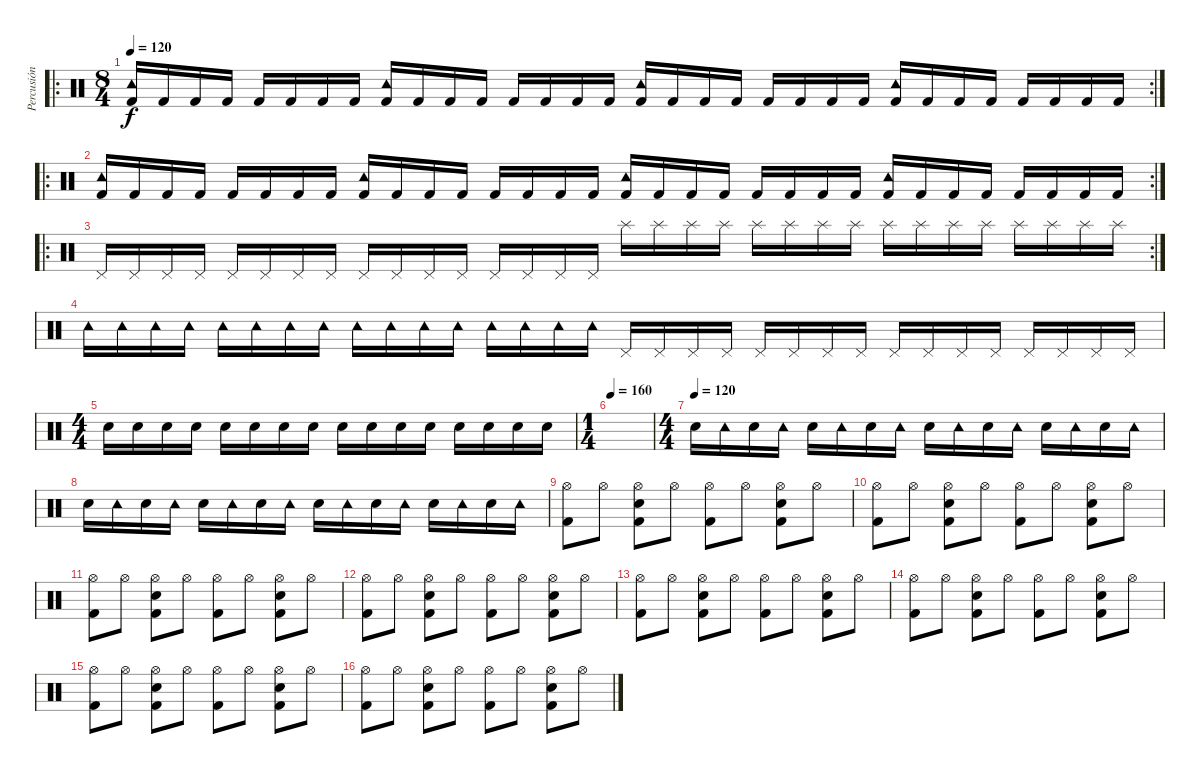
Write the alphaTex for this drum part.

\track ("Percusión" "Percusión") {instrument percussion}
\staff {score}
\articulation defaults
\ro
\rc 2
\ts (8 4)
\tempo 120
\clef neutral
\ks c
("Kick (hit) 2" "Tambourine (hit)").16{dy f} "Kick (hit) 2".16 "Kick (hit) 2".16 "Kick (hit) 2".16 "Kick (hit) 2".16 "Kick (hit) 2".16 "Kick (hit) 2".16 "Kick (hit) 2".16 ("Kick (hit) 2" "Tambourine (hit)").16 "Kick (hit) 2".16 "Kick (hit) 2".16 "Kick (hit) 2".16 "Kick (hit) 2".16 "Kick (hit) 2".16 "Kick (hit) 2".16 "Kick (hit) 2".16 ("Kick (hit) 2" "Tambourine (hit)").16 "Kick (hit) 2".16 "Kick (hit) 2".16 "Kick (hit) 2".16 "Kick (hit) 2".16 "Kick (hit) 2".16 "Kick (hit) 2".16 "Kick (hit) 2".16 ("Kick (hit) 2" "Tambourine (hit)").16 "Kick (hit) 2".16 "Kick (hit) 2".16 "Kick (hit) 2".16 "Kick (hit) 2".16 "Kick (hit) 2".16 "Kick (hit) 2".16 "Kick (hit) 2".16 |
\ro
\rc 2
("Kick (hit) 2" "Tambourine (hit)").16 "Kick (hit) 2".16 "Kick (hit) 2".16 "Kick (hit) 2".16 "Kick (hit) 2".16 "Kick (hit) 2".16 "Kick (hit) 2".16 "Kick (hit) 2".16 ("Kick (hit) 2" "Tambourine (hit)").16 "Kick (hit) 2".16 "Kick (hit) 2".16 "Kick (hit) 2".16 "Kick (hit) 2".16 "Kick (hit) 2".16 "Kick (hit) 2".16 "Kick (hit) 2".16 ("Kick (hit) 2" "Tambourine (hit)").16 "Kick (hit) 2".16 "Kick (hit) 2".16 "Kick (hit) 2".16 "Kick (hit) 2".16 "Kick (hit) 2".16 "Kick (hit) 2".16 "Kick (hit) 2".16 ("Kick (hit) 2" "Tambourine (hit)").16 "Kick (hit) 2".16 "Kick (hit) 2".16 "Kick (hit) 2".16 "Kick (hit) 2".16 "Kick (hit) 2".16 "Kick (hit) 2".16 "Kick (hit) 2".16 |
\ro
\rc 2 "Pedal Hi-Hat (hit)".16 "Pedal Hi-Hat (hit)".16 "Pedal Hi-Hat (hit)".16 "Pedal Hi-Hat (hit)".16 "Pedal Hi-Hat (hit)".16 "Pedal Hi-Hat (hit)".16 "Pedal Hi-Hat (hit)".16 "Pedal Hi-Hat (hit)".16 "Pedal Hi-Hat (hit)".16 "Pedal Hi-Hat (hit)".16 "Pedal Hi-Hat (hit)".16 "Pedal Hi-Hat (hit)".16 "Pedal Hi-Hat (hit)".16 "Pedal Hi-Hat (hit)".16 "Pedal Hi-Hat (hit)".16 "Pedal Hi-Hat (hit)".16 "Splash (hit)".16 "Splash (hit)".16 "Splash (hit)".16 "Splash (hit)".16 "Splash (hit)".16 "Splash (hit)".16 "Splash (hit)".16 "Splash (hit)".16 "Splash (hit)".16 "Splash (hit)".16 "Splash (hit)".16 "Splash (hit)".16 "Splash (hit)".16 "Splash (hit)".16 "Splash (hit)".16 "Splash (hit)".16
|
"Tambourine (hit)".16 "Tambourine (hit)".16 "Tambourine (hit)".16 "Tambourine (hit)".16 "Tambourine (hit)".16 "Tambourine (hit)".16 "Tambourine (hit)".16 "Tambourine (hit)".16 "Tambourine (hit)".16 "Tambourine (hit)".16 "Tambourine (hit)".16 "Tambourine (hit)".16 "Tambourine (hit)".16 "Tambourine (hit)".16 "Tambourine (hit)".16 "Tambourine (hit)".16 "Pedal Hi-Hat (hit)".16 "Pedal Hi-Hat (hit)".16 "Pedal Hi-Hat (hit)".16 "Pedal Hi-Hat (hit)".16 "Pedal Hi-Hat (hit)".16 "Pedal Hi-Hat (hit)".16 "Pedal Hi-Hat (hit)".16 "Pedal Hi-Hat (hit)".16 "Pedal Hi-Hat (hit)".16 "Pedal Hi-Hat (hit)".16 "Pedal Hi-Hat (hit)".16 "Pedal Hi-Hat (hit)".16 "Pedal Hi-Hat (hit)".16 "Pedal Hi-Hat (hit)".16 "Pedal Hi-Hat (hit)".16 "Pedal Hi-Hat (hit)".16 |
\ts (4 4)
"Snare (hit) 2".16 "Snare (hit) 2".16 "Snare (hit) 2".16 "Snare (hit) 2".16 "Snare (hit) 2".16 "Snare (hit) 2".16 "Snare (hit) 2".16 "Snare (hit) 2".16 "Snare (hit) 2".16 "Snare (hit) 2".16 "Snare (hit) 2".16 "Snare (hit) 2".16 "Snare (hit) 2".16 "Snare (hit) 2".16 "Snare (hit) 2".16 "Snare (hit) 2".16 |
\ts (1 4)
\tempo 160
|
\ts (4 4)
\tempo (120)
"Electric Snare (hit)".16 "Tambourine (hit)".16 "Electric Snare (hit)".16 "Tambourine (hit)".16 "Electric Snare (hit)".16 "Tambourine (hit)".16 "Electric Snare (hit)".16 "Tambourine (hit)".16 "Electric Snare (hit)".16 "Tambourine (hit)".16 "Electric Snare (hit)".16 "Tambourine (hit)".16 "Electric Snare (hit)".16 "Tambourine (hit)".16 "Electric Snare (hit)".16 "Tambourine (hit)".16 |
"Electric Snare (hit)".16 "Tambourine (hit)".16 "Electric Snare (hit)".16 "Tambourine (hit)".16 "Electric Snare (hit)".16 "Tambourine (hit)".16 "Electric Snare (hit)".16 "Tambourine (hit)".16 "Electric Snare (hit)".16 "Tambourine (hit)".16 "Electric Snare (hit)".16 "Tambourine (hit)".16 "Electric Snare (hit)".16 "Tambourine (hit)".16 "Electric Snare (hit)".16 "Tambourine (hit)".16 |
("Kick (hit) 2" "Hi-Hat (open)").8 "Hi-Hat (open)".8 ("Kick (hit) 2" "Electric Snare (hit)" "Hi-Hat (open)").8 "Hi-Hat (open)".8 ("Kick (hit) 2" "Hi-Hat (open)").8 "Hi-Hat (open)".8 ("Kick (hit) 2" "Electric Snare (hit)" "Hi-Hat (open)").8 "Hi-Hat (open)".8 |
("Kick (hit) 2" "Hi-Hat (open)").8 "Hi-Hat (open)".8 ("Kick (hit) 2" "Electric Snare (hit)" "Hi-Hat (open)").8 "Hi-Hat (open)".8 ("Kick (hit) 2" "Hi-Hat (open)").8 "Hi-Hat (open)".8 ("Kick (hit) 2" "Electric Snare (hit)" "Hi-Hat (open)").8 "Hi-Hat (open)".8 |
("Kick (hit) 2" "Hi-Hat (open)").8 "Hi-Hat (open)".8 ("Kick (hit) 2" "Electric Snare (hit)" "Hi-Hat (open)").8 "Hi-Hat (open)".8 ("Kick (hit) 2" "Hi-Hat (open)").8 "Hi-Hat (open)".8 ("Kick (hit) 2" "Electric Snare (hit)" "Hi-Hat (open)").8 "Hi-Hat (open)".8 |
("Kick (hit) 2" "Hi-Hat (open)").8 "Hi-Hat (open)".8 ("Kick (hit) 2" "Electric Snare (hit)" "Hi-Hat (open)").8 "Hi-Hat (open)".8 ("Kick (hit) 2" "Hi-Hat (open)").8 "Hi-Hat (open)".8 ("Kick (hit) 2" "Electric Snare (hit)" "Hi-Hat (open)").8 "Hi-Hat (open)".8 |
("Kick (hit) 2" "Hi-Hat (open)").8 "Hi-Hat (open)".8 ("Kick (hit) 2" "Electric Snare (hit)" "Hi-Hat (open)").8 "Hi-Hat (open)".8 ("Kick (hit) 2" "Hi-Hat (open)").8 "Hi-Hat (open)".8 ("Kick (hit) 2" "Electric Snare (hit)" "Hi-Hat (open)").8 "Hi-Hat (open)".8 |
("Kick (hit) 2" "Hi-Hat (open)").8 "Hi-Hat (open)".8 ("Kick (hit) 2" "Electric Snare (hit)" "Hi-Hat (open)").8 "Hi-Hat (open)".8 ("Kick (hit) 2" "Hi-Hat (open)").8 "Hi-Hat (open)".8 ("Kick (hit) 2" "Electric Snare (hit)" "Hi-Hat (open)").8 "Hi-Hat (open)".8 |
("Kick (hit) 2" "Hi-Hat (open)").8 "Hi-Hat (open)".8 ("Kick (hit) 2" "Electric Snare (hit)" "Hi-Hat (open)").8 "Hi-Hat (open)".8 ("Kick (hit) 2" "Hi-Hat (open)").8 "Hi-Hat (open)".8 ("Kick (hit) 2" "Electric Snare (hit)" "Hi-Hat (open)").8 "Hi-Hat (open)".8 |
("Kick (hit) 2" "Hi-Hat (open)").8 "Hi-Hat (open)".8 ("Kick (hit) 2" "Electric Snare (hit)" "Hi-Hat (open)").8 "Hi-Hat (open)".8 ("Kick (hit) 2" "Hi-Hat (open)").8 "Hi-Hat (open)".8 ("Kick (hit) 2" "Electric Snare (hit)" "Hi-Hat (open)").8 "Hi-Hat (open)".8
